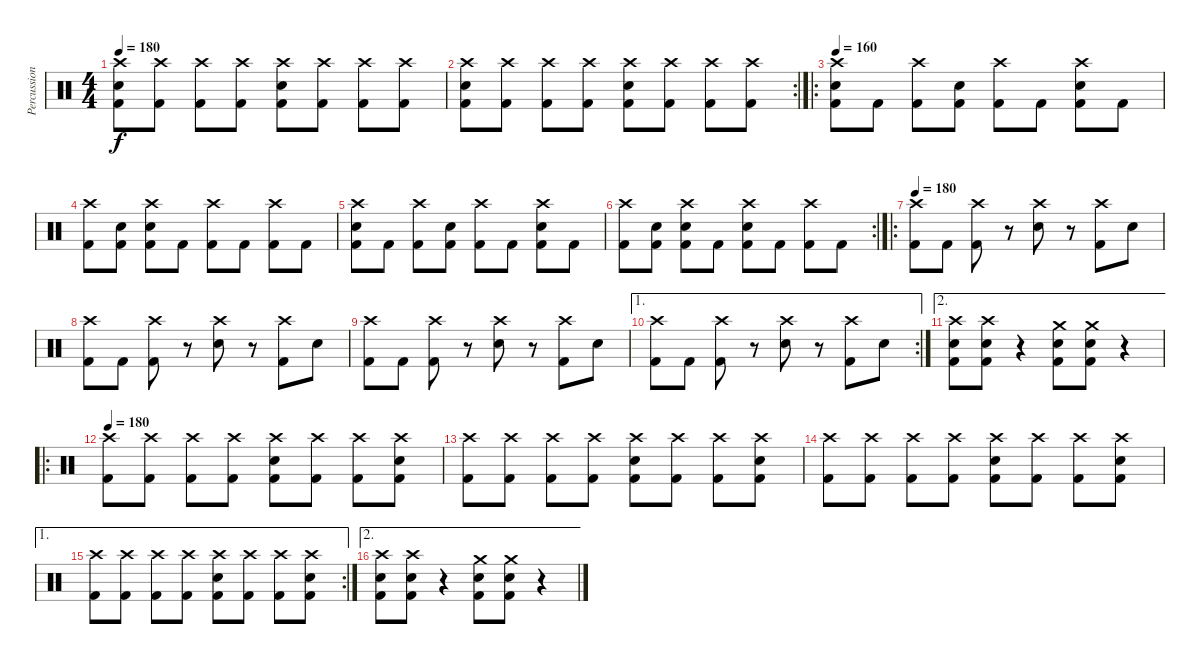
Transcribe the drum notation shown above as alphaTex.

\track ("Percussion" "Percussion") {instrument percussion}
\staff {score}
\articulation defaults
\ts (4 4)
\tempo 180
\clef neutral
\ks c
("Crash high (hit)" "Snare (hit) 2" "Kick (hit) 2").8{dy f} ("Crash high (hit)" "Kick (hit) 2").8 ("Crash high (hit)" "Kick (hit) 2").8 ("Crash high (hit)" "Kick (hit) 2").8 ("Crash high (hit)" "Snare (hit) 2" "Kick (hit) 2").8 ("Crash high (hit)" "Kick (hit) 2").8 ("Crash high (hit)" "Kick (hit) 2").8 ("Crash high (hit)" "Kick (hit) 2").8 |
\rc 2
("Crash high (hit)" "Snare (hit) 2" "Kick (hit) 2").8 ("Crash high (hit)" "Kick (hit) 2").8 ("Crash high (hit)" "Kick (hit) 2").8 ("Crash high (hit)" "Kick (hit) 2").8 ("Crash high (hit)" "Snare (hit) 2" "Kick (hit) 2").8 ("Crash high (hit)" "Kick (hit) 2").8 ("Crash high (hit)" "Kick (hit) 2").8 ("Crash high (hit)" "Kick (hit) 2").8 |
\ro
\tempo 160
("Crash high (hit)" "Snare (hit) 2" "Kick (hit) 2").8 "Kick (hit) 2".8 ("Crash high (hit)" "Kick (hit) 2").8 ("Snare (hit) 2" "Kick (hit) 2").8 ("Crash high (hit)" "Kick (hit) 2").8 "Kick (hit) 2".8 ("Crash high (hit)" "Snare (hit) 2" "Kick (hit) 2").8 "Kick (hit) 2".8 |
("Crash high (hit)" "Kick (hit) 2").8 ("Snare (hit) 2" "Kick (hit) 2").8 ("Crash high (hit)" "Snare (hit) 2" "Kick (hit) 2").8 "Kick (hit) 2".8 ("Crash high (hit)" "Kick (hit) 2").8 "Kick (hit) 2".8 ("Crash high (hit)" "Kick (hit) 2").8 "Kick (hit) 2".8 |
("Crash high (hit)" "Snare (hit) 2" "Kick (hit) 2").8 "Kick (hit) 2".8 ("Crash high (hit)" "Kick (hit) 2").8 ("Snare (hit) 2" "Kick (hit) 2").8 ("Crash high (hit)" "Kick (hit) 2").8 "Kick (hit) 2".8 ("Crash high (hit)" "Snare (hit) 2" "Kick (hit) 2").8 "Kick (hit) 2".8 |
\rc 2
("Crash high (hit)" "Kick (hit) 2").8 ("Snare (hit) 2" "Kick (hit) 2").8 ("Crash high (hit)" "Snare (hit) 2" "Kick (hit) 2").8 "Kick (hit) 2".8 ("Crash high (hit)" "Snare (hit) 2" "Kick (hit) 2").8 "Kick (hit) 2".8 ("Crash high (hit)" "Kick (hit) 2").8 "Kick (hit) 2".8 |
\ro
\tempo 180
("Crash high (hit)" "Kick (hit) 2").8 "Kick (hit) 2".8 ("Crash high (hit)" "Kick (hit) 2").8 r.8 ("Crash high (hit)" "Snare (hit) 2").8 r.8 ("Crash high (hit)" "Kick (hit) 2").8 "Snare (hit) 2".8 |
("Crash high (hit)" "Kick (hit) 2").8 "Kick (hit) 2".8 ("Crash high (hit)" "Kick (hit) 2").8 r.8 ("Crash high (hit)" "Snare (hit) 2").8 r.8 ("Crash high (hit)" "Kick (hit) 2").8 "Snare (hit) 2".8 |
("Crash high (hit)" "Kick (hit) 2").8 "Kick (hit) 2".8 ("Crash high (hit)" "Kick (hit) 2").8 r.8 ("Crash high (hit)" "Snare (hit) 2").8 r.8 ("Crash high (hit)" "Kick (hit) 2").8 "Snare (hit) 2".8 |
\ae 1
\rc 2
("Crash high (hit)" "Kick (hit) 2").8 "Kick (hit) 2".8 ("Crash high (hit)" "Kick (hit) 2").8 r.8 ("Crash high (hit)" "Snare (hit) 2").8 r.8 ("Crash high (hit)" "Kick (hit) 2").8 "Snare (hit) 2".8 |
\ae 2
("Kick (hit) 2" "Snare (hit) 2" "Crash high (hit)").8 ("Kick (hit) 2" "Snare (hit) 2" "Crash high (hit)").8 r.4 ("Kick (hit) 2" "Snare (hit) 2" "Crash medium (hit)").8 ("Kick (hit) 2" "Snare (hit) 2" "Crash medium (hit)").8 r.4 |
\ro
\tempo 180
("Crash high (hit)" "Kick (hit) 2").8 ("Crash high (hit)" "Kick (hit) 2").8 ("Crash high (hit)" "Kick (hit) 2").8 ("Crash high (hit)" "Kick (hit) 2").8 ("Crash high (hit)" "Snare (hit) 2" "Kick (hit) 2").8 ("Crash high (hit)" "Kick (hit) 2").8 ("Crash high (hit)" "Kick (hit) 2").8 ("Crash high (hit)" "Snare (hit) 2" "Kick (hit) 2").8 |
("Crash high (hit)" "Kick (hit) 2").8 ("Crash high (hit)" "Kick (hit) 2").8 ("Crash high (hit)" "Kick (hit) 2").8 ("Crash high (hit)" "Kick (hit) 2").8 ("Crash high (hit)" "Snare (hit) 2" "Kick (hit) 2").8 ("Crash high (hit)" "Kick (hit) 2").8 ("Crash high (hit)" "Kick (hit) 2").8 ("Crash high (hit)" "Snare (hit) 2" "Kick (hit) 2").8 |
("Crash high (hit)" "Kick (hit) 2").8 ("Crash high (hit)" "Kick (hit) 2").8 ("Crash high (hit)" "Kick (hit) 2").8 ("Crash high (hit)" "Kick (hit) 2").8 ("Crash high (hit)" "Snare (hit) 2" "Kick (hit) 2").8 ("Crash high (hit)" "Kick (hit) 2").8 ("Crash high (hit)" "Kick (hit) 2").8 ("Crash high (hit)" "Snare (hit) 2" "Kick (hit) 2").8 |
\ae 1
\rc 2
("Crash high (hit)" "Kick (hit) 2").8 ("Crash high (hit)" "Kick (hit) 2").8 ("Crash high (hit)" "Kick (hit) 2").8 ("Crash high (hit)" "Kick (hit) 2").8 ("Crash high (hit)" "Snare (hit) 2" "Kick (hit) 2").8 ("Crash high (hit)" "Kick (hit) 2").8 ("Crash high (hit)" "Kick (hit) 2").8 ("Crash high (hit)" "Snare (hit) 2" "Kick (hit) 2").8 |
\ae 2
("Kick (hit) 2" "Snare (hit) 2" "Crash high (hit)").8 ("Kick (hit) 2" "Snare (hit) 2" "Crash high (hit)").8 r.4 ("Kick (hit) 2" "Snare (hit) 2" "Crash medium (hit)").8 ("Kick (hit) 2" "Snare (hit) 2" "Crash medium (hit)").8 r.4
